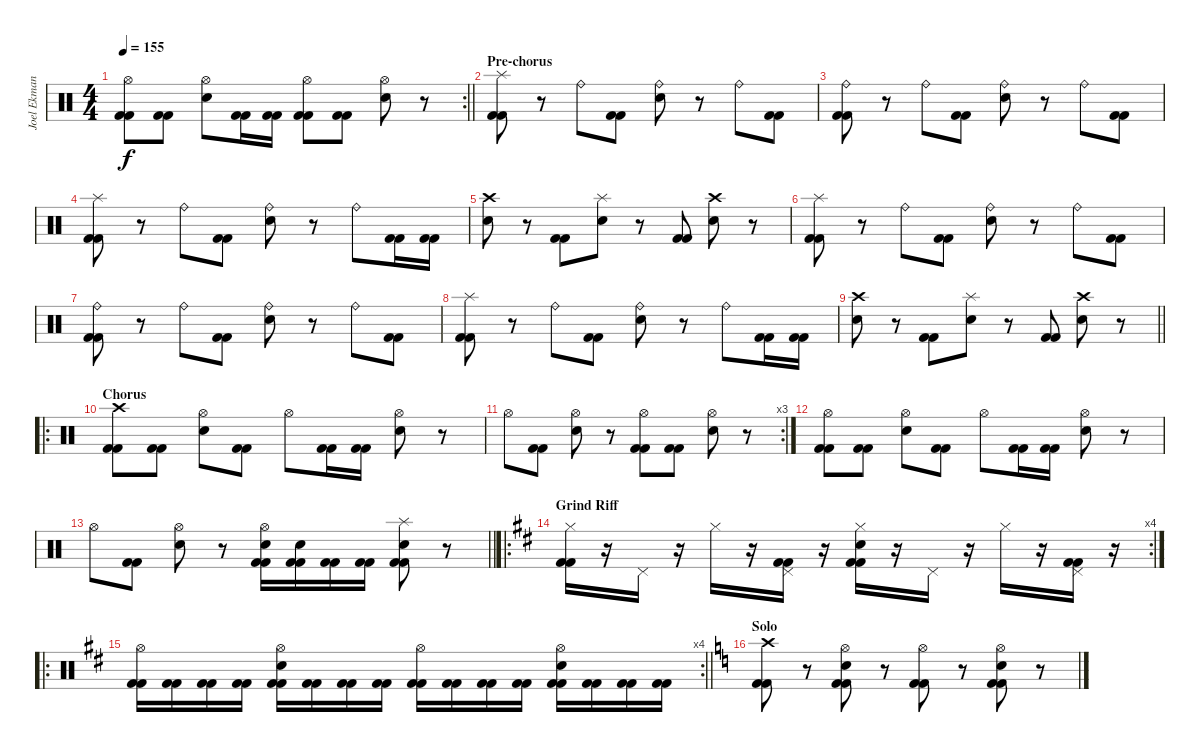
\track ("Joel Ekman-percussion tab" "Joel Ekman") {instrument percussion}
\staff {score}
\articulation defaults
\rc 2
\ts (4 4)
\tempo 155
\clef neutral
\barLineRight lightlight
\ks c
("Hi-Hat (open)" "Kick (hit) 2" "Kick (hit) 2").8{dy f} ("Kick (hit) 2" "Kick (hit) 2").8 ("Hi-Hat (open)" "Snare (hit) 2").8 ("Kick (hit) 2" "Kick (hit) 2").16 ("Kick (hit) 2" "Kick (hit) 2").16 ("Hi-Hat (open)" "Kick (hit) 2" "Kick (hit) 2").8 ("Kick (hit) 2" "Kick (hit) 2").8 ("Hi-Hat (open)" "Snare (hit) 2").8 r.8 |
\section ("" "Pre-chorus")
("Splash (hit)" "Kick (hit) 2" "Kick (hit) 2").8 r.8 "Ride (bell)".8 ("Kick (hit) 2" "Kick (hit) 2").8 ("Ride (bell)" "Snare (hit) 2").8 r.8 "Ride (bell)".8 ("Kick (hit) 2" "Kick (hit) 2").8 |
("Ride (bell)" "Kick (hit) 2" "Kick (hit) 2").8 r.8 "Ride (bell)".8 ("Kick (hit) 2" "Kick (hit) 2").8 ("Ride (bell)" "Snare (hit) 2").8 r.8 "Ride (bell)".8 ("Kick (hit) 2" "Kick (hit) 2").8 |
("Splash (hit)" "Kick (hit) 2" "Kick (hit) 2").8 r.8 "Ride (bell)".8 ("Kick (hit) 2" "Kick (hit) 2").8 ("Ride (bell)" "Snare (hit) 2").8 r.8 "Ride (bell)".8 ("Kick (hit) 2" "Kick (hit) 2").16 ("Kick (hit) 2" "Kick (hit) 2").16 |
("Crash high (hit)" "Snare (hit) 2").8 r.8 ("Kick (hit) 2" "Kick (hit) 2").8 ("Splash (hit)" "Snare (hit) 2").8 r.8 ("Kick (hit) 2" "Kick (hit) 2").8 ("Crash high (hit)" "Snare (hit) 2").8 r.8 |
("Splash (hit)" "Kick (hit) 2" "Kick (hit) 2").8 r.8 "Ride (bell)".8 ("Kick (hit) 2" "Kick (hit) 2").8 ("Ride (bell)" "Snare (hit) 2").8 r.8 "Ride (bell)".8 ("Kick (hit) 2" "Kick (hit) 2").8 |
("Ride (bell)" "Kick (hit) 2" "Kick (hit) 2").8 r.8 "Ride (bell)".8 ("Kick (hit) 2" "Kick (hit) 2").8 ("Ride (bell)" "Snare (hit) 2").8 r.8 "Ride (bell)".8 ("Kick (hit) 2" "Kick (hit) 2").8 |
("Splash (hit)" "Kick (hit) 2" "Kick (hit) 2").8 r.8 "Ride (bell)".8 ("Kick (hit) 2" "Kick (hit) 2").8 ("Ride (bell)" "Snare (hit) 2").8 r.8 "Ride (bell)".8 ("Kick (hit) 2" "Kick (hit) 2").16 ("Kick (hit) 2" "Kick (hit) 2").16 |
\barLineRight lightlight
("Crash high (hit)" "Snare (hit) 2").8 r.8 ("Kick (hit) 2" "Kick (hit) 2").8 ("Splash (hit)" "Snare (hit) 2").8 r.8 ("Kick (hit) 2" "Kick (hit) 2").8 ("Crash high (hit)" "Snare (hit) 2").8 r.8 |
\ro
\section ("" "Chorus")
("Crash high (hit)" "Kick (hit) 2" "Kick (hit) 2").8 ("Kick (hit) 2" "Kick (hit) 2").8 ("Hi-Hat (open)" "Snare (hit) 2").8 ("Kick (hit) 2" "Kick (hit) 2").8 "Hi-Hat (open)".8 ("Kick (hit) 2" "Kick (hit) 2").16 ("Kick (hit) 2" "Kick (hit) 2").16 ("Hi-Hat (open)" "Snare (hit) 2").8 r.8 |
\rc 3 "Hi-Hat (open)".8
("Kick (hit) 2" "Kick (hit) 2").8 ("Hi-Hat (open)" "Snare (hit) 2").8 r.8 ("Hi-Hat (open)" "Kick (hit) 2" "Kick (hit) 2").8 ("Kick (hit) 2" "Kick (hit) 2").8 ("Hi-Hat (open)" "Snare (hit) 2").8 r.8 |
("Hi-Hat (open)" "Kick (hit) 2" "Kick (hit) 2").8 ("Kick (hit) 2" "Kick (hit) 2").8 ("Hi-Hat (open)" "Snare (hit) 2").8 ("Kick (hit) 2" "Kick (hit) 2").8 "Hi-Hat (open)".8 ("Kick (hit) 2" "Kick (hit) 2").16 ("Kick (hit) 2" "Kick (hit) 2").16 ("Hi-Hat (open)" "Snare (hit) 2").8 r.8 |
\barLineRight lightlight "Hi-Hat (open)".8
("Kick (hit) 2" "Kick (hit) 2").8 ("Hi-Hat (open)" "Snare (hit) 2").8 r.8 ("Hi-Hat (open)" "Snare (hit) 2" "Kick (hit) 2" "Kick (hit) 2").16 ("Snare (hit) 2" "Kick (hit) 2" "Kick (hit) 2").16 ("Kick (hit) 2" "Kick (hit) 2").16 ("Kick (hit) 2" "Kick (hit) 2").16 ("Splash (hit)" "Snare (hit) 2" "Kick (hit) 2" "Kick (hit) 2").8 r.8 |
\ro
\rc 4
\section ("" "Grind Riff")
\ks d
("Hi-Hat (closed)" "Kick (hit) 2" "Kick (hit) 2").16 r.16 "Pedal Hi-Hat (hit)".16 r.16 "Hi-Hat (closed)".16 r.16 ("Pedal Hi-Hat (hit)" "Kick (hit) 2" "Kick (hit) 2").16 r.16 ("Hi-Hat (closed)" "Snare (hit) 2" "Kick (hit) 2" "Kick (hit) 2").16 r.16 "Pedal Hi-Hat (hit)".16 r.16 "Hi-Hat (closed)".16 r.16 ("Pedal Hi-Hat (hit)" "Kick (hit) 2" "Kick (hit) 2").16 r.16 |
\ro
\rc 4
\barLineRight lightlight
("Hi-Hat (open)" "Kick (hit) 2" "Kick (hit) 2").16 ("Kick (hit) 2" "Kick (hit) 2").16 ("Kick (hit) 2" "Kick (hit) 2").16 ("Kick (hit) 2" "Kick (hit) 2").16 ("Hi-Hat (open)" "Snare (hit) 2" "Kick (hit) 2" "Kick (hit) 2").16 ("Kick (hit) 2" "Kick (hit) 2").16 ("Kick (hit) 2" "Kick (hit) 2").16 ("Kick (hit) 2" "Kick (hit) 2").16 ("Hi-Hat (open)" "Kick (hit) 2" "Kick (hit) 2").16 ("Kick (hit) 2" "Kick (hit) 2").16 ("Kick (hit) 2" "Kick (hit) 2").16 ("Kick (hit) 2" "Kick (hit) 2").16 ("Hi-Hat (open)" "Snare (hit) 2" "Kick (hit) 2" "Kick (hit) 2").16 ("Kick (hit) 2" "Kick (hit) 2").16 ("Kick (hit) 2" "Kick (hit) 2").16 ("Kick (hit) 2" "Kick (hit) 2").16 |
\section ("" "Solo")
\ks c
("Crash high (hit)" "Kick (hit) 2" "Kick (hit) 2").8 r.8 ("Hi-Hat (open)" "Snare (hit) 2" "Kick (hit) 2" "Kick (hit) 2").8 r.8 ("Hi-Hat (open)" "Kick (hit) 2" "Kick (hit) 2").8 r.8 ("Hi-Hat (open)" "Snare (hit) 2" "Kick (hit) 2" "Kick (hit) 2").8 r.8
